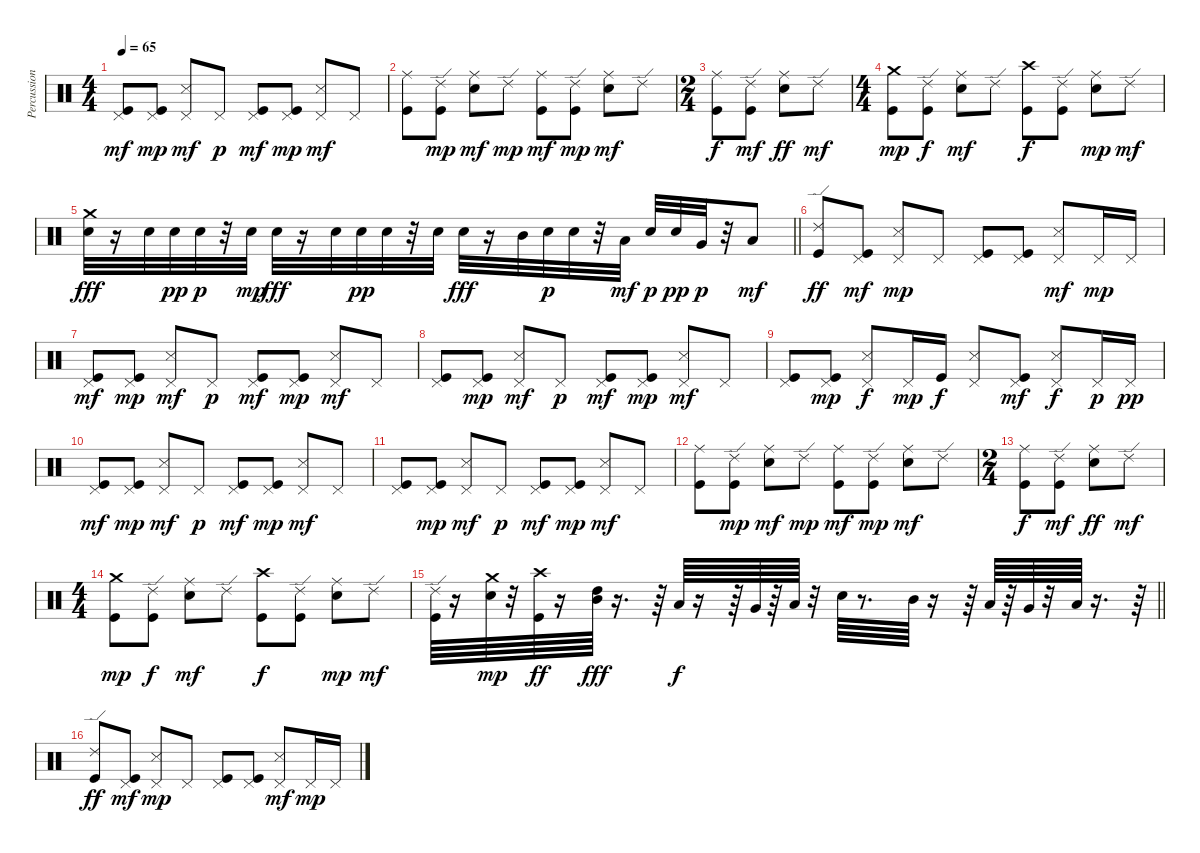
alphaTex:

\track ("Percussions" "Percussion") {instrument percussion}
\staff {score}
\articulation defaults
\ts (4 4)
\tempo 65
\clef neutral
\ks c
("Pedal Hi-Hat (hit)" "Kick (hit)").8{dy mf} ("Pedal Hi-Hat (hit)" "Kick (hit)").8{dy mp} ("Pedal Hi-Hat (hit)" "Snare (side stick) 3").8{dy mf} "Pedal Hi-Hat (hit)".8{dy p} ("Pedal Hi-Hat (hit)" "Kick (hit)").8{dy mf} ("Pedal Hi-Hat (hit)" "Kick (hit)").8{dy mp} ("Pedal Hi-Hat (hit)" "Snare (side stick) 3").8{dy mf} "Pedal Hi-Hat (hit)".8 |
("Ride (middle)" "Kick (hit)").8 ("Ride (edge) 2" "Kick (hit)").8{dy mp} ("Ride (middle)" "Electric Snare (hit)").8{dy mf} "Ride (edge) 2".8{dy mp} ("Ride (middle)" "Kick (hit)").8{dy mf} ("Ride (edge) 2" "Kick (hit)").8{dy mp} ("Ride (middle)" "Electric Snare (hit)").8{dy mf} "Ride (edge) 2".8 |
\ts (2 4)
("Ride (middle)" "Kick (hit)").8{dy f} ("Ride (edge) 2" "Kick (hit)").8{dy mf} ("Ride (middle)" "Electric Snare (hit)").8{dy ff} "Ride (edge) 2".8{dy mf} |
\ts (4 4)
("Crash medium (hit)" "Kick (hit)").8{dy mp} ("Ride (edge) 2" "Kick (hit)").8{dy f} ("Ride (middle)" "Electric Snare (hit)").8{dy mf} "Ride (edge) 2".8 ("Crash high (hit)" "Kick (hit)").8{dy f} ("Ride (edge) 2" "Kick (hit)").8 ("Ride (middle)" "Electric Snare (hit)").8{dy mp} "Ride (edge) 2".8{dy mf} |
\barLineRight lightlight
("Crash medium (hit)" "Electric Snare (hit)").32{dy fff} r.16 "Electric Snare (hit)".32 "Electric Snare (hit)".32{dy pp} "Electric Snare (hit)".32{dy p} r.32 "Electric Snare (hit)".32{dy mp} "Electric Snare (hit)".32{dy fff} r.16 "Electric Snare (hit)".32 "Electric Snare (hit)".32{dy pp} "Electric Snare (hit)".32 r.32 "Electric Snare (hit)".32 "Electric Snare (hit)".32{dy fff} r.16 "Mid Tom (hit)".32 "Electric Snare (hit)".32{dy p} "Electric Snare (hit)".32 r.32 "Low Tom (hit)".32{dy mf} "Electric Snare (hit)".32{dy p} "Electric Snare (hit)".32{dy pp} "Very Low Tom (hit)".32{dy p} r.32 "Low Floor Tom (hit)".8{dy mf} |
("Ride (edge) 2" "Kick (hit)").8{dy ff} ("Pedal Hi-Hat (hit)" "Kick (hit)").8{dy mf} ("Pedal Hi-Hat (hit)" "Snare (side stick) 3").8{dy mp} "Pedal Hi-Hat (hit)".8 ("Pedal Hi-Hat (hit)" "Kick (hit)").8 ("Pedal Hi-Hat (hit)" "Kick (hit)").8 ("Pedal Hi-Hat (hit)" "Snare (side stick) 3").8{dy mf} "Pedal Hi-Hat (hit)".16{dy mp} "Pedal Hi-Hat (hit)".16 |
("Pedal Hi-Hat (hit)" "Kick (hit)").8{dy mf} ("Pedal Hi-Hat (hit)" "Kick (hit)").8{dy mp} ("Pedal Hi-Hat (hit)" "Snare (side stick) 3").8{dy mf} "Pedal Hi-Hat (hit)".8{dy p} ("Pedal Hi-Hat (hit)" "Kick (hit)").8{dy mf} ("Pedal Hi-Hat (hit)" "Kick (hit)").8{dy mp} ("Pedal Hi-Hat (hit)" "Snare (side stick) 3").8{dy mf} "Pedal Hi-Hat (hit)".8 |
("Pedal Hi-Hat (hit)" "Kick (hit)").8 ("Pedal Hi-Hat (hit)" "Kick (hit)").8{dy mp} ("Pedal Hi-Hat (hit)" "Snare (side stick) 3").8{dy mf} "Pedal Hi-Hat (hit)".8{dy p} ("Pedal Hi-Hat (hit)" "Kick (hit)").8{dy mf} ("Pedal Hi-Hat (hit)" "Kick (hit)").8{dy mp} ("Pedal Hi-Hat (hit)" "Snare (side stick) 3").8{dy mf} "Pedal Hi-Hat (hit)".8 |
("Pedal Hi-Hat (hit)" "Kick (hit)").8 ("Pedal Hi-Hat (hit)" "Kick (hit)").8{dy mp} ("Pedal Hi-Hat (hit)" "Snare (side stick) 3").8{dy f} "Pedal Hi-Hat (hit)".16{dy mp} "Kick (hit)".16{dy f} ("Pedal Hi-Hat (hit)" "Snare (side stick) 3").8 ("Pedal Hi-Hat (hit)" "Kick (hit)").8{dy mf} ("Pedal Hi-Hat (hit)" "Snare (side stick) 3").8{dy f} "Pedal Hi-Hat (hit)".16{dy p} "Pedal Hi-Hat (hit)".16{dy pp} |
("Pedal Hi-Hat (hit)" "Kick (hit)").8{dy mf} ("Pedal Hi-Hat (hit)" "Kick (hit)").8{dy mp} ("Pedal Hi-Hat (hit)" "Snare (side stick) 3").8{dy mf} "Pedal Hi-Hat (hit)".8{dy p} ("Pedal Hi-Hat (hit)" "Kick (hit)").8{dy mf} ("Pedal Hi-Hat (hit)" "Kick (hit)").8{dy mp} ("Pedal Hi-Hat (hit)" "Snare (side stick) 3").8{dy mf} "Pedal Hi-Hat (hit)".8 |
("Pedal Hi-Hat (hit)" "Kick (hit)").8 ("Pedal Hi-Hat (hit)" "Kick (hit)").8{dy mp} ("Pedal Hi-Hat (hit)" "Snare (side stick) 3").8{dy mf} "Pedal Hi-Hat (hit)".8{dy p} ("Pedal Hi-Hat (hit)" "Kick (hit)").8{dy mf} ("Pedal Hi-Hat (hit)" "Kick (hit)").8{dy mp} ("Pedal Hi-Hat (hit)" "Snare (side stick) 3").8{dy mf} "Pedal Hi-Hat (hit)".8 |
("Ride (middle)" "Kick (hit)").8 ("Ride (edge) 2" "Kick (hit)").8{dy mp} ("Ride (middle)" "Electric Snare (hit)").8{dy mf} "Ride (edge) 2".8{dy mp} ("Ride (middle)" "Kick (hit)").8{dy mf} ("Ride (edge) 2" "Kick (hit)").8{dy mp} ("Ride (middle)" "Electric Snare (hit)").8{dy mf} "Ride (edge) 2".8 |
\ts (2 4)
("Ride (middle)" "Kick (hit)").8{dy f} ("Ride (edge) 2" "Kick (hit)").8{dy mf} ("Ride (middle)" "Electric Snare (hit)").8{dy ff} "Ride (edge) 2".8{dy mf} |
\ts (4 4)
("Crash medium (hit)" "Kick (hit)").8{dy mp} ("Ride (edge) 2" "Kick (hit)").8{dy f} ("Ride (middle)" "Electric Snare (hit)").8{dy mf} "Ride (edge) 2".8 ("Crash high (hit)" "Kick (hit)").8{dy f} ("Ride (edge) 2" "Kick (hit)").8 ("Ride (middle)" "Electric Snare (hit)").8{dy mp} "Ride (edge) 2".8{dy mf} |
\barLineRight lightlight
("Ride (edge) 2" "Kick (hit)").64 r.16 ("Crash medium (hit)" "Electric Snare (hit)").64{dy mp} r.32 ("Crash high (hit)" "Kick (hit)").64{dy ff} r.16 ("High Tom (hit)" "Mid Tom (hit)").64{dy fff} r.16{d} r.64 "Low Tom (hit)".64{dy f} r.16 r.64 "Very Low Tom (hit)".64 r.64 "Low Floor Tom (hit)".64 r.32 "Electric Snare (hit)".64 r.8{d} "Mid Tom (hit)".64 r.16 r.64 "Low Tom (hit)".64 r.64 "Very Low Tom (hit)".64 r.32 "Low Floor Tom (hit)".64 r.16{d} r.64 |
("Ride (edge) 2" "Kick (hit)").8{dy ff} ("Pedal Hi-Hat (hit)" "Kick (hit)").8{dy mf} ("Pedal Hi-Hat (hit)" "Snare (side stick) 3").8{dy mp} "Pedal Hi-Hat (hit)".8 ("Pedal Hi-Hat (hit)" "Kick (hit)").8 ("Pedal Hi-Hat (hit)" "Kick (hit)").8 ("Pedal Hi-Hat (hit)" "Snare (side stick) 3").8{dy mf} "Pedal Hi-Hat (hit)".16{dy mp} "Pedal Hi-Hat (hit)".16
